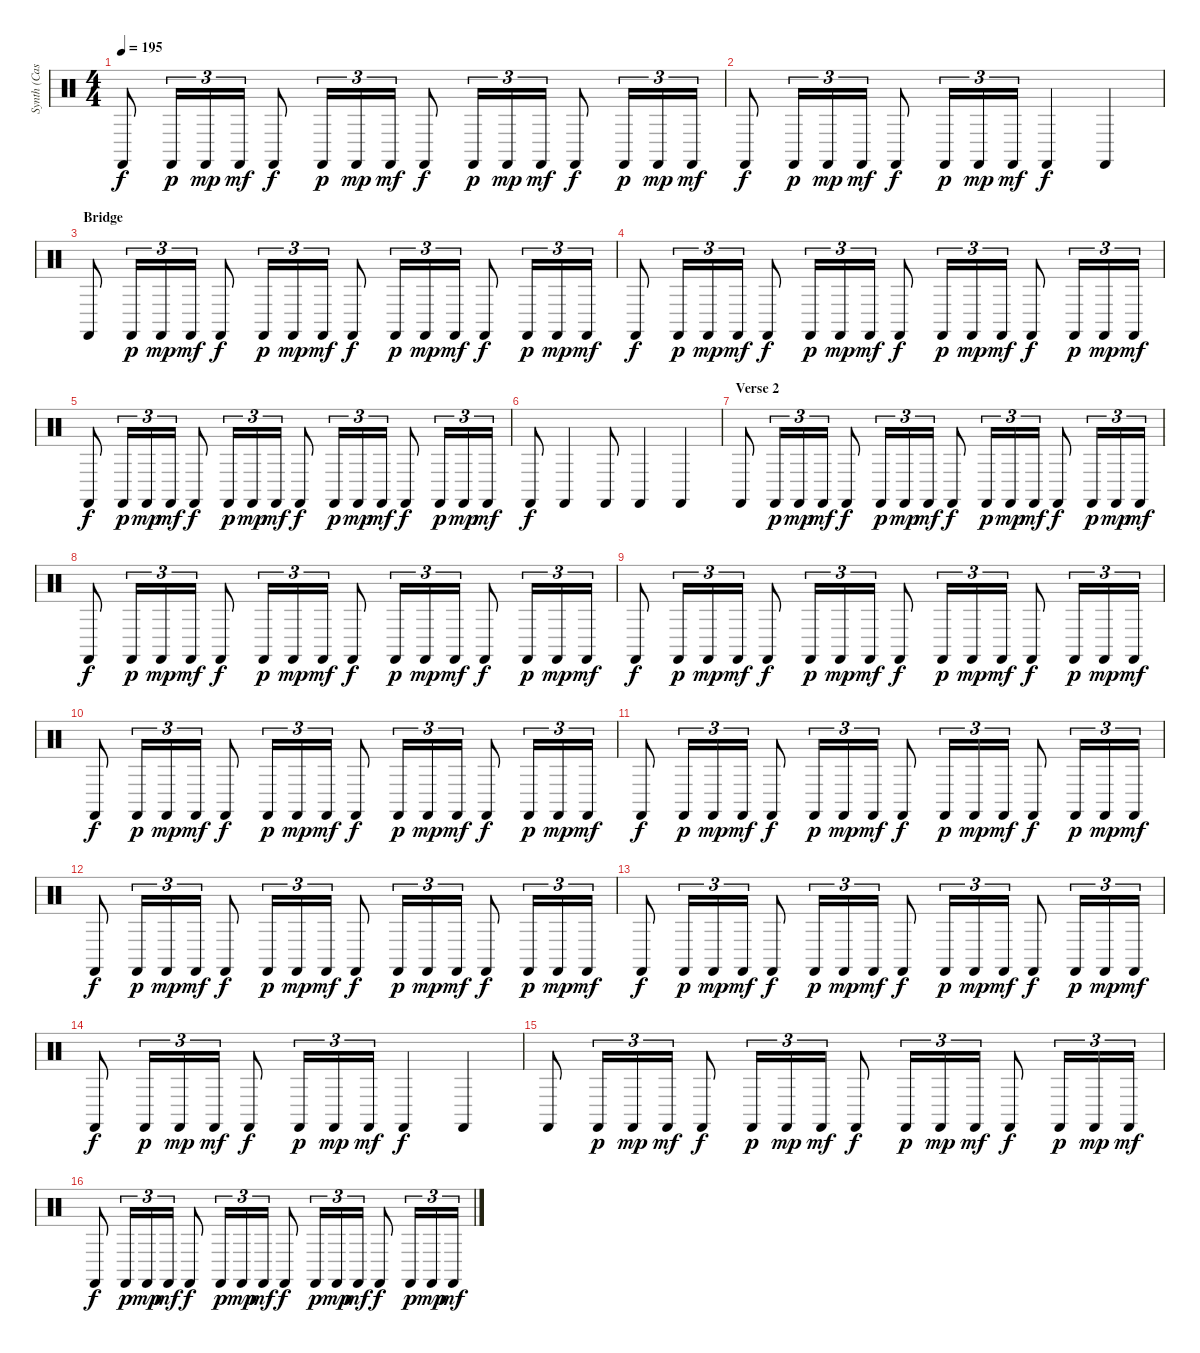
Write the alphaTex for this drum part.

\track ("Synth (Castinets)" "Synth (Cas") {instrument percussion}
\staff {score}
\articulation defaults
\ts (4 4)
\tempo 195
\clef neutral
\ks c "Castanets (hit)".8{dy f} "Castanets (hit)".16{tu (3 2) dy p} "Castanets (hit)".16{tu (3 2) dy mp} "Castanets (hit)".16{tu (3 2) dy mf} "Castanets (hit)".8{dy f} "Castanets (hit)".16{tu (3 2) dy p} "Castanets (hit)".16{tu (3 2) dy mp} "Castanets (hit)".16{tu (3 2) dy mf} "Castanets (hit)".8{dy f} "Castanets (hit)".16{tu (3 2) dy p} "Castanets (hit)".16{tu (3 2) dy mp} "Castanets (hit)".16{tu (3 2) dy mf} "Castanets (hit)".8{dy f} "Castanets (hit)".16{tu (3 2) dy p} "Castanets (hit)".16{tu (3 2) dy mp} "Castanets (hit)".16{tu (3 2) dy mf}
|
"Castanets (hit)".8{dy f} "Castanets (hit)".16{tu (3 2) dy p} "Castanets (hit)".16{tu (3 2) dy mp} "Castanets (hit)".16{tu (3 2) dy mf} "Castanets (hit)".8{dy f} "Castanets (hit)".16{tu (3 2) dy p} "Castanets (hit)".16{tu (3 2) dy mp} "Castanets (hit)".16{tu (3 2) dy mf} "Castanets (hit)".4{dy f} "Castanets (hit)".4 |
\section ("" "Bridge")
"Castanets (hit)".8 "Castanets (hit)".16{tu (3 2) dy p} "Castanets (hit)".16{tu (3 2) dy mp} "Castanets (hit)".16{tu (3 2) dy mf} "Castanets (hit)".8{dy f} "Castanets (hit)".16{tu (3 2) dy p} "Castanets (hit)".16{tu (3 2) dy mp} "Castanets (hit)".16{tu (3 2) dy mf} "Castanets (hit)".8{dy f} "Castanets (hit)".16{tu (3 2) dy p} "Castanets (hit)".16{tu (3 2) dy mp} "Castanets (hit)".16{tu (3 2) dy mf} "Castanets (hit)".8{dy f} "Castanets (hit)".16{tu (3 2) dy p} "Castanets (hit)".16{tu (3 2) dy mp} "Castanets (hit)".16{tu (3 2) dy mf} |
"Castanets (hit)".8{dy f} "Castanets (hit)".16{tu (3 2) dy p} "Castanets (hit)".16{tu (3 2) dy mp} "Castanets (hit)".16{tu (3 2) dy mf} "Castanets (hit)".8{dy f} "Castanets (hit)".16{tu (3 2) dy p} "Castanets (hit)".16{tu (3 2) dy mp} "Castanets (hit)".16{tu (3 2) dy mf} "Castanets (hit)".8{dy f} "Castanets (hit)".16{tu (3 2) dy p} "Castanets (hit)".16{tu (3 2) dy mp} "Castanets (hit)".16{tu (3 2) dy mf} "Castanets (hit)".8{dy f} "Castanets (hit)".16{tu (3 2) dy p} "Castanets (hit)".16{tu (3 2) dy mp} "Castanets (hit)".16{tu (3 2) dy mf} |
"Castanets (hit)".8{dy f} "Castanets (hit)".16{tu (3 2) dy p} "Castanets (hit)".16{tu (3 2) dy mp} "Castanets (hit)".16{tu (3 2) dy mf} "Castanets (hit)".8{dy f} "Castanets (hit)".16{tu (3 2) dy p} "Castanets (hit)".16{tu (3 2) dy mp} "Castanets (hit)".16{tu (3 2) dy mf} "Castanets (hit)".8{dy f} "Castanets (hit)".16{tu (3 2) dy p} "Castanets (hit)".16{tu (3 2) dy mp} "Castanets (hit)".16{tu (3 2) dy mf} "Castanets (hit)".8{dy f} "Castanets (hit)".16{tu (3 2) dy p} "Castanets (hit)".16{tu (3 2) dy mp} "Castanets (hit)".16{tu (3 2) dy mf} |
"Castanets (hit)".8{dy f} "Castanets (hit)".4 "Castanets (hit)".8 "Castanets (hit)".4 "Castanets (hit)".4 |
\section ("" "Verse 2")
"Castanets (hit)".8 "Castanets (hit)".16{tu (3 2) dy p} "Castanets (hit)".16{tu (3 2) dy mp} "Castanets (hit)".16{tu (3 2) dy mf} "Castanets (hit)".8{dy f} "Castanets (hit)".16{tu (3 2) dy p} "Castanets (hit)".16{tu (3 2) dy mp} "Castanets (hit)".16{tu (3 2) dy mf} "Castanets (hit)".8{dy f} "Castanets (hit)".16{tu (3 2) dy p} "Castanets (hit)".16{tu (3 2) dy mp} "Castanets (hit)".16{tu (3 2) dy mf} "Castanets (hit)".8{dy f} "Castanets (hit)".16{tu (3 2) dy p} "Castanets (hit)".16{tu (3 2) dy mp} "Castanets (hit)".16{tu (3 2) dy mf} |
"Castanets (hit)".8{dy f} "Castanets (hit)".16{tu (3 2) dy p} "Castanets (hit)".16{tu (3 2) dy mp} "Castanets (hit)".16{tu (3 2) dy mf} "Castanets (hit)".8{dy f} "Castanets (hit)".16{tu (3 2) dy p} "Castanets (hit)".16{tu (3 2) dy mp} "Castanets (hit)".16{tu (3 2) dy mf} "Castanets (hit)".8{dy f} "Castanets (hit)".16{tu (3 2) dy p} "Castanets (hit)".16{tu (3 2) dy mp} "Castanets (hit)".16{tu (3 2) dy mf} "Castanets (hit)".8{dy f} "Castanets (hit)".16{tu (3 2) dy p} "Castanets (hit)".16{tu (3 2) dy mp} "Castanets (hit)".16{tu (3 2) dy mf} |
"Castanets (hit)".8{dy f} "Castanets (hit)".16{tu (3 2) dy p} "Castanets (hit)".16{tu (3 2) dy mp} "Castanets (hit)".16{tu (3 2) dy mf} "Castanets (hit)".8{dy f} "Castanets (hit)".16{tu (3 2) dy p} "Castanets (hit)".16{tu (3 2) dy mp} "Castanets (hit)".16{tu (3 2) dy mf} "Castanets (hit)".8{dy f} "Castanets (hit)".16{tu (3 2) dy p} "Castanets (hit)".16{tu (3 2) dy mp} "Castanets (hit)".16{tu (3 2) dy mf} "Castanets (hit)".8{dy f} "Castanets (hit)".16{tu (3 2) dy p} "Castanets (hit)".16{tu (3 2) dy mp} "Castanets (hit)".16{tu (3 2) dy mf} |
"Castanets (hit)".8{dy f} "Castanets (hit)".16{tu (3 2) dy p} "Castanets (hit)".16{tu (3 2) dy mp} "Castanets (hit)".16{tu (3 2) dy mf} "Castanets (hit)".8{dy f} "Castanets (hit)".16{tu (3 2) dy p} "Castanets (hit)".16{tu (3 2) dy mp} "Castanets (hit)".16{tu (3 2) dy mf} "Castanets (hit)".8{dy f} "Castanets (hit)".16{tu (3 2) dy p} "Castanets (hit)".16{tu (3 2) dy mp} "Castanets (hit)".16{tu (3 2) dy mf} "Castanets (hit)".8{dy f} "Castanets (hit)".16{tu (3 2) dy p} "Castanets (hit)".16{tu (3 2) dy mp} "Castanets (hit)".16{tu (3 2) dy mf} |
"Castanets (hit)".8{dy f} "Castanets (hit)".16{tu (3 2) dy p} "Castanets (hit)".16{tu (3 2) dy mp} "Castanets (hit)".16{tu (3 2) dy mf} "Castanets (hit)".8{dy f} "Castanets (hit)".16{tu (3 2) dy p} "Castanets (hit)".16{tu (3 2) dy mp} "Castanets (hit)".16{tu (3 2) dy mf} "Castanets (hit)".8{dy f} "Castanets (hit)".16{tu (3 2) dy p} "Castanets (hit)".16{tu (3 2) dy mp} "Castanets (hit)".16{tu (3 2) dy mf} "Castanets (hit)".8{dy f} "Castanets (hit)".16{tu (3 2) dy p} "Castanets (hit)".16{tu (3 2) dy mp} "Castanets (hit)".16{tu (3 2) dy mf} |
"Castanets (hit)".8{dy f} "Castanets (hit)".16{tu (3 2) dy p} "Castanets (hit)".16{tu (3 2) dy mp} "Castanets (hit)".16{tu (3 2) dy mf} "Castanets (hit)".8{dy f} "Castanets (hit)".16{tu (3 2) dy p} "Castanets (hit)".16{tu (3 2) dy mp} "Castanets (hit)".16{tu (3 2) dy mf} "Castanets (hit)".8{dy f} "Castanets (hit)".16{tu (3 2) dy p} "Castanets (hit)".16{tu (3 2) dy mp} "Castanets (hit)".16{tu (3 2) dy mf} "Castanets (hit)".8{dy f} "Castanets (hit)".16{tu (3 2) dy p} "Castanets (hit)".16{tu (3 2) dy mp} "Castanets (hit)".16{tu (3 2) dy mf} |
"Castanets (hit)".8{dy f} "Castanets (hit)".16{tu (3 2) dy p} "Castanets (hit)".16{tu (3 2) dy mp} "Castanets (hit)".16{tu (3 2) dy mf} "Castanets (hit)".8{dy f} "Castanets (hit)".16{tu (3 2) dy p} "Castanets (hit)".16{tu (3 2) dy mp} "Castanets (hit)".16{tu (3 2) dy mf} "Castanets (hit)".8{dy f} "Castanets (hit)".16{tu (3 2) dy p} "Castanets (hit)".16{tu (3 2) dy mp} "Castanets (hit)".16{tu (3 2) dy mf} "Castanets (hit)".8{dy f} "Castanets (hit)".16{tu (3 2) dy p} "Castanets (hit)".16{tu (3 2) dy mp} "Castanets (hit)".16{tu (3 2) dy mf} |
"Castanets (hit)".8{dy f} "Castanets (hit)".16{tu (3 2) dy p} "Castanets (hit)".16{tu (3 2) dy mp} "Castanets (hit)".16{tu (3 2) dy mf} "Castanets (hit)".8{dy f} "Castanets (hit)".16{tu (3 2) dy p} "Castanets (hit)".16{tu (3 2) dy mp} "Castanets (hit)".16{tu (3 2) dy mf} "Castanets (hit)".4{dy f} "Castanets (hit)".4 |
"Castanets (hit)".8 "Castanets (hit)".16{tu (3 2) dy p} "Castanets (hit)".16{tu (3 2) dy mp} "Castanets (hit)".16{tu (3 2) dy mf} "Castanets (hit)".8{dy f} "Castanets (hit)".16{tu (3 2) dy p} "Castanets (hit)".16{tu (3 2) dy mp} "Castanets (hit)".16{tu (3 2) dy mf} "Castanets (hit)".8{dy f} "Castanets (hit)".16{tu (3 2) dy p} "Castanets (hit)".16{tu (3 2) dy mp} "Castanets (hit)".16{tu (3 2) dy mf} "Castanets (hit)".8{dy f} "Castanets (hit)".16{tu (3 2) dy p} "Castanets (hit)".16{tu (3 2) dy mp} "Castanets (hit)".16{tu (3 2) dy mf} |
"Castanets (hit)".8{dy f} "Castanets (hit)".16{tu (3 2) dy p} "Castanets (hit)".16{tu (3 2) dy mp} "Castanets (hit)".16{tu (3 2) dy mf} "Castanets (hit)".8{dy f} "Castanets (hit)".16{tu (3 2) dy p} "Castanets (hit)".16{tu (3 2) dy mp} "Castanets (hit)".16{tu (3 2) dy mf} "Castanets (hit)".8{dy f} "Castanets (hit)".16{tu (3 2) dy p} "Castanets (hit)".16{tu (3 2) dy mp} "Castanets (hit)".16{tu (3 2) dy mf} "Castanets (hit)".8{dy f} "Castanets (hit)".16{tu (3 2) dy p} "Castanets (hit)".16{tu (3 2) dy mp} "Castanets (hit)".16{tu (3 2) dy mf}
